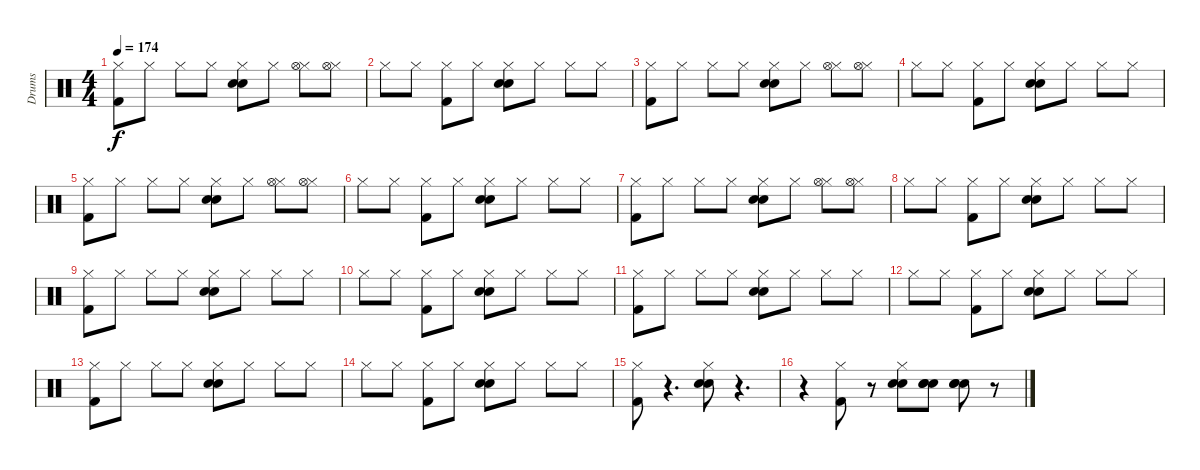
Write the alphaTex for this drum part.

\track ("Drums" "Drums") {instrument percussion}
\staff {score}
\articulation defaults
\ts (4 4)
\tempo 174
\clef neutral
\ks c
("Hi-Hat (closed)" "Kick (hit) 2").8{dy f} "Hi-Hat (closed)".8 "Hi-Hat (closed)".8 "Hi-Hat (closed)".8 ("Hi-Hat (closed)" "Snare (hit) 2" "Hand Clap (hit)").8 "Hi-Hat (closed)".8 ("Hi-Hat (closed)" "Hi-Hat (open)").8 ("Hi-Hat (closed)" "Hi-Hat (open)").8 |
"Hi-Hat (closed)".8 "Hi-Hat (closed)".8 ("Hi-Hat (closed)" "Kick (hit) 2").8 "Hi-Hat (closed)".8 ("Hi-Hat (closed)" "Snare (hit) 2" "Hand Clap (hit)").8 "Hi-Hat (closed)".8 "Hi-Hat (closed)".8 "Hi-Hat (closed)".8 |
("Hi-Hat (closed)" "Kick (hit) 2").8 "Hi-Hat (closed)".8 "Hi-Hat (closed)".8 "Hi-Hat (closed)".8 ("Hi-Hat (closed)" "Snare (hit) 2" "Hand Clap (hit)").8 "Hi-Hat (closed)".8 ("Hi-Hat (closed)" "Hi-Hat (open)").8 ("Hi-Hat (closed)" "Hi-Hat (open)").8 |
"Hi-Hat (closed)".8 "Hi-Hat (closed)".8 ("Hi-Hat (closed)" "Kick (hit) 2").8 "Hi-Hat (closed)".8 ("Hi-Hat (closed)" "Snare (hit) 2" "Hand Clap (hit)").8 "Hi-Hat (closed)".8 "Hi-Hat (closed)".8 "Hi-Hat (closed)".8 |
("Hi-Hat (closed)" "Kick (hit) 2").8 "Hi-Hat (closed)".8 "Hi-Hat (closed)".8 "Hi-Hat (closed)".8 ("Hi-Hat (closed)" "Snare (hit) 2" "Hand Clap (hit)").8 "Hi-Hat (closed)".8 ("Hi-Hat (closed)" "Hi-Hat (open)").8 ("Hi-Hat (closed)" "Hi-Hat (open)").8 |
"Hi-Hat (closed)".8 "Hi-Hat (closed)".8 ("Hi-Hat (closed)" "Kick (hit) 2").8 "Hi-Hat (closed)".8 ("Hi-Hat (closed)" "Snare (hit) 2" "Hand Clap (hit)").8 "Hi-Hat (closed)".8 "Hi-Hat (closed)".8 "Hi-Hat (closed)".8 |
("Hi-Hat (closed)" "Kick (hit) 2").8 "Hi-Hat (closed)".8 "Hi-Hat (closed)".8 "Hi-Hat (closed)".8 ("Hi-Hat (closed)" "Snare (hit) 2" "Hand Clap (hit)").8 "Hi-Hat (closed)".8 ("Hi-Hat (closed)" "Hi-Hat (open)").8 ("Hi-Hat (closed)" "Hi-Hat (open)").8 |
"Hi-Hat (closed)".8 "Hi-Hat (closed)".8 ("Hi-Hat (closed)" "Kick (hit) 2").8 "Hi-Hat (closed)".8 ("Hi-Hat (closed)" "Snare (hit) 2" "Hand Clap (hit)").8 "Hi-Hat (closed)".8 "Hi-Hat (closed)".8 "Hi-Hat (closed)".8 |
("Hi-Hat (closed)" "Kick (hit) 2").8 "Hi-Hat (closed)".8 "Hi-Hat (closed)".8 "Hi-Hat (closed)".8 ("Hi-Hat (closed)" "Snare (hit) 2" "Hand Clap (hit)").8 "Hi-Hat (closed)".8 "Hi-Hat (closed)".8 "Hi-Hat (closed)".8 |
"Hi-Hat (closed)".8 "Hi-Hat (closed)".8 ("Hi-Hat (closed)" "Kick (hit) 2").8 "Hi-Hat (closed)".8 ("Hi-Hat (closed)" "Snare (hit) 2" "Hand Clap (hit)").8 "Hi-Hat (closed)".8 "Hi-Hat (closed)".8 "Hi-Hat (closed)".8 |
("Hi-Hat (closed)" "Kick (hit) 2").8 "Hi-Hat (closed)".8 "Hi-Hat (closed)".8 "Hi-Hat (closed)".8 ("Hi-Hat (closed)" "Snare (hit) 2" "Hand Clap (hit)").8 "Hi-Hat (closed)".8 "Hi-Hat (closed)".8 "Hi-Hat (closed)".8 |
"Hi-Hat (closed)".8 "Hi-Hat (closed)".8 ("Hi-Hat (closed)" "Kick (hit) 2").8 "Hi-Hat (closed)".8 ("Hi-Hat (closed)" "Snare (hit) 2" "Hand Clap (hit)").8 "Hi-Hat (closed)".8 "Hi-Hat (closed)".8 "Hi-Hat (closed)".8 |
("Hi-Hat (closed)" "Kick (hit) 2").8 "Hi-Hat (closed)".8 "Hi-Hat (closed)".8 "Hi-Hat (closed)".8 ("Hi-Hat (closed)" "Snare (hit) 2" "Hand Clap (hit)").8 "Hi-Hat (closed)".8 "Hi-Hat (closed)".8 "Hi-Hat (closed)".8 |
"Hi-Hat (closed)".8 "Hi-Hat (closed)".8 ("Hi-Hat (closed)" "Kick (hit) 2").8 "Hi-Hat (closed)".8 ("Hi-Hat (closed)" "Snare (hit) 2" "Hand Clap (hit)").8 "Hi-Hat (closed)".8 "Hi-Hat (closed)".8 "Hi-Hat (closed)".8 |
("Hi-Hat (closed)" "Kick (hit) 2").8 r.4{d} ("Hi-Hat (closed)" "Hand Clap (hit)" "Snare (hit) 2").8 r.4{d} |
r.4 ("Hi-Hat (closed)" "Kick (hit) 2").8 r.8 ("Hi-Hat (closed)" "Electric Snare (hit)" "Snare (hit) 2").8 ("Electric Snare (hit)" "Hand Clap (hit)" "Snare (hit) 2").8 ("Electric Snare (hit)" "Hand Clap (hit)" "Snare (hit) 2").8 r.8
